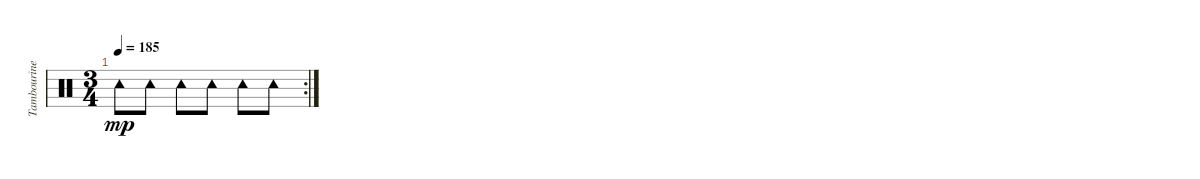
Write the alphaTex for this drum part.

\track ("Tambourine" "Tambourine") {instrument percussion}
\staff {score}
\articulation defaults
\rc 2
\ts (3 4)
\tempo 185
\clef neutral
\ks c "Tambourine (hit)".8{dy mp} "Tambourine (hit)".8 "Tambourine (hit)".8 "Tambourine (hit)".8 "Tambourine (hit)".8 "Tambourine (hit)".8
